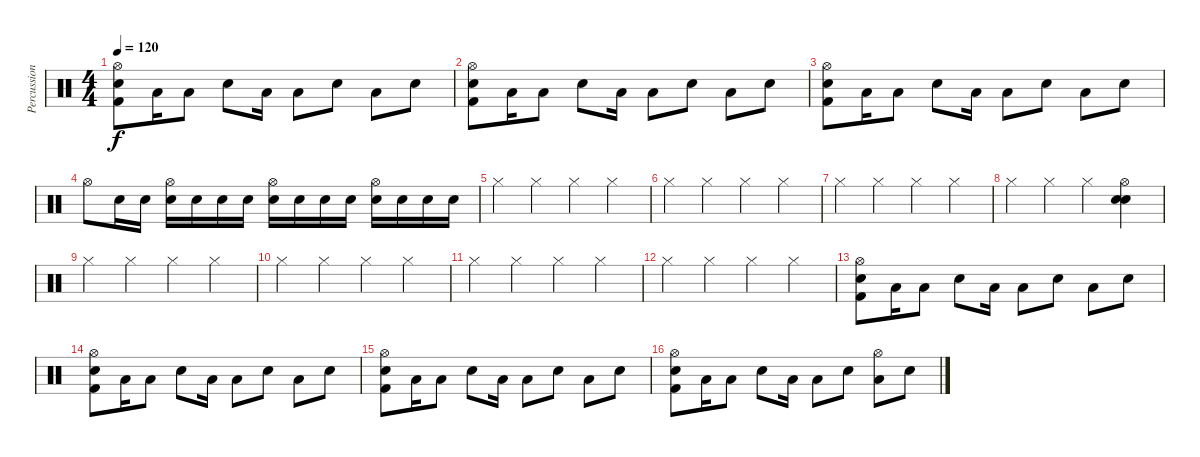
\track ("Percussions" "Percussion") {instrument percussion}
\staff {score}
\articulation defaults
\ts (4 4)
\tempo 120
\clef neutral
\ks c
("Hi-Hat (open)" "Electric Snare (hit)" "Kick (hit) 2").8{dy f} "Low Tom (hit)".16 "Low Tom (hit)".8 "Snare (hit) 2".8 "Low Tom (hit)".16 "Low Tom (hit)".8 "Snare (hit) 2".8 "Low Tom (hit)".8 "Snare (hit) 2".8 |
("Hi-Hat (open)" "Electric Snare (hit)" "Kick (hit) 2").8 "Low Tom (hit)".16 "Low Tom (hit)".8 "Snare (hit) 2".8 "Low Tom (hit)".16 "Low Tom (hit)".8 "Snare (hit) 2".8 "Low Tom (hit)".8 "Snare (hit) 2".8 |
("Hi-Hat (open)" "Electric Snare (hit)" "Kick (hit) 2").8 "Low Tom (hit)".16 "Low Tom (hit)".8 "Snare (hit) 2".8 "Low Tom (hit)".16 "Low Tom (hit)".8 "Snare (hit) 2".8 "Low Tom (hit)".8 "Snare (hit) 2".8 |
"Hi-Hat (open)".8 "Electric Snare (hit)".16 "Electric Snare (hit)".16 ("Hi-Hat (open)" "Electric Snare (hit)").16 "Electric Snare (hit)".16 "Electric Snare (hit)".16 "Electric Snare (hit)".16 ("Hi-Hat (open)" "Electric Snare (hit)").16 "Electric Snare (hit)".16 "Electric Snare (hit)".16 "Electric Snare (hit)".16 ("Hi-Hat (open)" "Electric Snare (hit)").16 "Electric Snare (hit)".16 "Electric Snare (hit)".16 "Electric Snare (hit)".16 |
"Hi-Hat (closed)".4 "Hi-Hat (closed)".4 "Hi-Hat (closed)".4 "Hi-Hat (closed)".4 |
"Hi-Hat (closed)".4 "Hi-Hat (closed)".4 "Hi-Hat (closed)".4 "Hi-Hat (closed)".4 |
"Hi-Hat (closed)".4 "Hi-Hat (closed)".4 "Hi-Hat (closed)".4 "Hi-Hat (closed)".4 |
"Hi-Hat (closed)".4 "Hi-Hat (closed)".4 "Hi-Hat (closed)".4 ("Hi-Hat (open)" "Electric Snare (hit)" "Snare (hit) 2").4 |
"Hi-Hat (closed)".4 "Hi-Hat (closed)".4 "Hi-Hat (closed)".4 "Hi-Hat (closed)".4 |
"Hi-Hat (closed)".4 "Hi-Hat (closed)".4 "Hi-Hat (closed)".4 "Hi-Hat (closed)".4 |
"Hi-Hat (closed)".4 "Hi-Hat (closed)".4 "Hi-Hat (closed)".4 "Hi-Hat (closed)".4 |
"Hi-Hat (closed)".4 "Hi-Hat (closed)".4 "Hi-Hat (closed)".4 "Hi-Hat (closed)".4 |
("Hi-Hat (open)" "Electric Snare (hit)" "Kick (hit) 2").8 "Low Tom (hit)".16 "Low Tom (hit)".8 "Snare (hit) 2".8 "Low Tom (hit)".16 "Low Tom (hit)".8 "Snare (hit) 2".8 "Low Tom (hit)".8 "Snare (hit) 2".8 |
("Hi-Hat (open)" "Electric Snare (hit)" "Kick (hit) 2").8 "Low Tom (hit)".16 "Low Tom (hit)".8 "Snare (hit) 2".8 "Low Tom (hit)".16 "Low Tom (hit)".8 "Snare (hit) 2".8 "Low Tom (hit)".8 "Snare (hit) 2".8 |
("Hi-Hat (open)" "Electric Snare (hit)" "Kick (hit) 2").8 "Low Tom (hit)".16 "Low Tom (hit)".8 "Snare (hit) 2".8 "Low Tom (hit)".16 "Low Tom (hit)".8 "Snare (hit) 2".8 "Low Tom (hit)".8 "Snare (hit) 2".8 |
("Hi-Hat (open)" "Electric Snare (hit)" "Kick (hit) 2").8 "Low Tom (hit)".16 "Low Tom (hit)".8 "Snare (hit) 2".8 "Low Tom (hit)".16 "Low Tom (hit)".8 "Snare (hit) 2".8 ("Hi-Hat (open)" "Low Tom (hit)").8 "Snare (hit) 2".8
